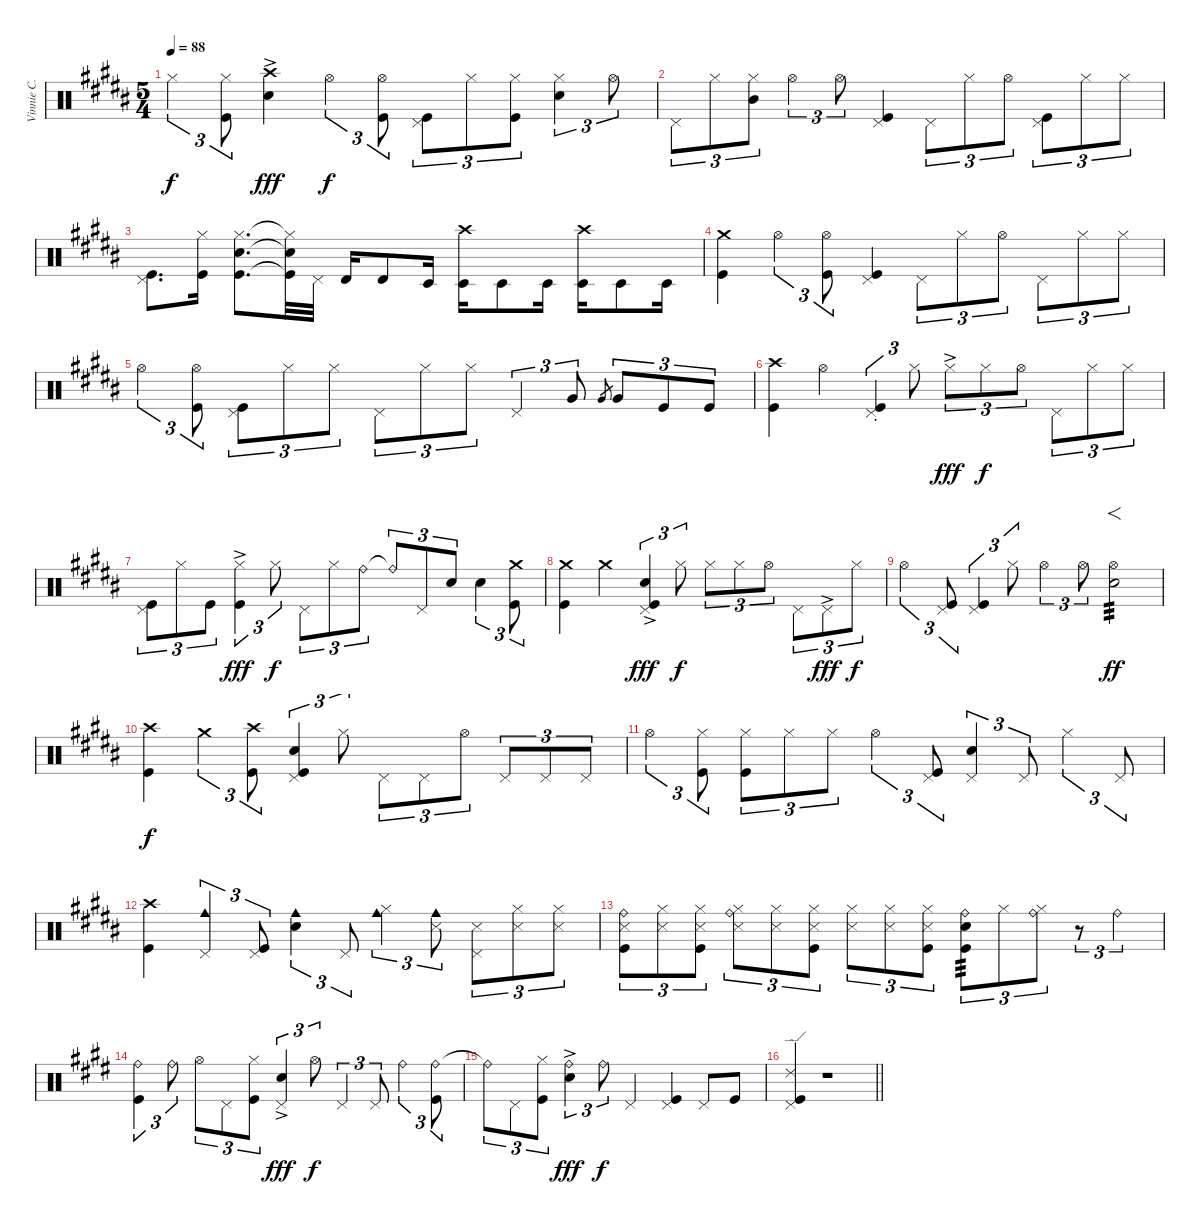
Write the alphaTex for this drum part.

\track ("Vinnie C." "Vinnie C.") {instrument percussion}
\staff {score}
\articulation defaults
\ts (5 4)
\tempo 88
\clef neutral
\ks b "Hi-Hat (closed)".4{tu (3 2) dy f}
("Hi-Hat (closed)" "Kick (hit)").8{tu (3 2)} ("Crash high (hit)"{ac} "Electric Snare (hit)").4{dy fff} "Hi-Hat (open)".4{tu (3 2) dy f} ("Hi-Hat (open)" "Kick (hit)").8{tu (3 2)} ("Pedal Hi-Hat (hit)" "Kick (hit)").8{tu (3 2)} "Hi-Hat (closed)".8{tu (3 2)} ("Hi-Hat (closed)" "Kick (hit)").8{tu (3 2)} ("Hi-Hat (closed)" "Electric Snare (hit)").4{tu (3 2)} "Hi-Hat (open)".8{tu (3 2)} |
"Pedal Hi-Hat (hit)".8{tu (3 2)} "Hi-Hat (closed)".8{tu (3 2)} ("Hi-Hat (closed)" "Mid Tom (hit)").8{tu (3 2)} "Hi-Hat (open)".4{tu (3 2)} "Hi-Hat (open)".8{tu (3 2)} ("Pedal Hi-Hat (hit)" "Kick (hit)").4 "Pedal Hi-Hat (hit)".8{tu (3 2)} "Hi-Hat (closed)".8{tu (3 2)} "Hi-Hat (open)".8{tu (3 2)} ("Pedal Hi-Hat (hit)" "Kick (hit)").8{tu (3 2)} "Hi-Hat (closed)".8{tu (3 2)} "Hi-Hat (closed)".8{tu (3 2)} |
("Pedal Hi-Hat (hit)" "Kick (hit)").8{d} ("Hi-Hat (closed)" "Kick (hit)").16 ("Hi-Hat (closed)" "Electric Snare (hit)" "Kick (hit)").8{d} ("Hi-Hat (closed)"{t} "Electric Snare (hit)"{t} "Kick (hit)"{t}).32 "Pedal Hi-Hat (hit)".32 "Timbale high (hit)".16 "Timbale high (hit)".8 "Timbale low (hit)".16 ("Crash high (hit)" "Timbale low (hit)").16 "Timbale low (hit)".8 "Timbale low (hit)".16 ("Crash high (hit)" "Timbale low (hit)").16 "Timbale low (hit)".8 "Timbale low (hit)".16 |
("Crash medium (hit)" "Kick (hit)").4 "Hi-Hat (open)".4{tu (3 2)} ("Hi-Hat (open)" "Kick (hit)").8{tu (3 2)} ("Pedal Hi-Hat (hit)" "Kick (hit)").4 "Pedal Hi-Hat (hit)".8{tu (3 2)} "Hi-Hat (closed)".8{tu (3 2)} "Hi-Hat (open)".8{tu (3 2)} "Pedal Hi-Hat (hit)".8{tu (3 2)} "Hi-Hat (closed)".8{tu (3 2)} "Hi-Hat (closed)".8{tu (3 2)} |
"Hi-Hat (open)".4{tu (3 2)} ("Hi-Hat (open)" "Kick (hit)").8{tu (3 2)} ("Pedal Hi-Hat (hit)" "Kick (hit)").8{tu (3 2)} "Hi-Hat (closed)".8{tu (3 2)} "Hi-Hat (closed)".8{tu (3 2)} "Pedal Hi-Hat (hit)".8{tu (3 2)} "Hi-Hat (closed)".8{tu (3 2)} "Hi-Hat (closed)".8{tu (3 2)} "Pedal Hi-Hat (hit)".4{tu (3 2)} "Very Low Tom (hit)".8{tu (3 2)} "Very Low Tom (hit)".8{gr} "Very Low Tom (hit)".8{tu (3 2)} "Kick (hit)".8{tu (3 2)} "Kick (hit)".8{tu (3 2)} |
("Crash high (hit)" "Kick (hit)").4 "Hi-Hat (open)".4 ("Pedal Hi-Hat (hit)"{st} "Kick (hit)").4{tu (3 2)} "Hi-Hat (closed)".8{tu (3 2)} "Hi-Hat (closed)"{ac}.8{tu (3 2) dy fff} "Hi-Hat (closed)".8{tu (3 2) dy f} "Hi-Hat (open)".8{tu (3 2)} "Pedal Hi-Hat (hit)".8{tu (3 2)} "Hi-Hat (closed)".8{tu (3 2)} "Hi-Hat (closed)".8{tu (3 2)} |
("Pedal Hi-Hat (hit)" "Kick (hit)").8{tu (3 2)} "Hi-Hat (closed)".8{tu (3 2)} "Kick (hit)".8{tu (3 2)} ("Hi-Hat (closed)"{ac} "Kick (hit)").4{tu (3 2) dy fff} "Hi-Hat (closed)".8{tu (3 2) dy f} "Pedal Hi-Hat (hit)".8{tu (3 2)} "Hi-Hat (closed)".8{tu (3 2)} "Ride (bell)".8{tu (3 2)} "Ride (bell)"{t}.8{tu (3 2)} "Pedal Hi-Hat (hit)".8{tu (3 2)} "Electric Snare (hit)".8{tu (3 2)} "Electric Snare (hit)".4{tu (3 2)} ("Crash medium (hit)" "Kick (hit)").8{tu (3 2)} |
("Crash medium (hit)" "Kick (hit)").4 "Crash medium (hit)".4 ("Pedal Hi-Hat (hit)"{ac} "Electric Snare (hit)" "Kick (hit)").4{tu (3 2) dy fff} "Hi-Hat (closed)".8{tu (3 2) dy f} "Hi-Hat (closed)".8{tu (3 2)} "Hi-Hat (closed)".8{tu (3 2)} "Hi-Hat (open)".8{tu (3 2)} "Pedal Hi-Hat (hit)".8{tu (3 2)} "Pedal Hi-Hat (hit)"{ac}.8{tu (3 2) dy fff} "Hi-Hat (closed)".8{tu (3 2) dy f} |
"Hi-Hat (open)".4{tu (3 2)} ("Pedal Hi-Hat (hit)" "Kick (hit)").8{tu (3 2)} ("Pedal Hi-Hat (hit)" "Kick (hit)").4{tu (3 2)} "Hi-Hat (closed)".8{tu (3 2)} "Hi-Hat (open)".4{tu (3 2)} "Hi-Hat (open)".8{tu (3 2)} ("Hi-Hat (open)" "Electric Snare (hit)").2{f tp 3 dy ff} |
("Crash high (hit)" "Kick (hit)").4{dy f} "Crash medium (hit)".4{tu (3 2)} ("Crash high (hit)" "Kick (hit)").8{tu (3 2)} ("Pedal Hi-Hat (hit)" "Electric Snare (hit)" "Kick (hit)").4{tu (3 2)} "Hi-Hat (closed)".8{tu (3 2)} "Pedal Hi-Hat (hit)".8{tu (3 2)} "Pedal Hi-Hat (hit)".8{tu (3 2)} "Hi-Hat (open)".8{tu (3 2)} "Pedal Hi-Hat (hit)".8{tu (3 2)} "Pedal Hi-Hat (hit)".8{tu (3 2)} "Pedal Hi-Hat (hit)".8{tu (3 2)} |
"Hi-Hat (open)".4{tu (3 2)} ("Hi-Hat (closed)" "Kick (hit)").8{tu (3 2)} ("Hi-Hat (closed)" "Kick (hit)").8{tu (3 2)} "Hi-Hat (closed)".8{tu (3 2)} "Hi-Hat (closed)".8{tu (3 2)} "Hi-Hat (open)".4{tu (3 2)} ("Pedal Hi-Hat (hit)" "Kick (hit)").8{tu (3 2)} ("Pedal Hi-Hat (hit)" "Electric Snare (hit)").4{tu (3 2)} "Pedal Hi-Hat (hit)".8{tu (3 2)} "Hi-Hat (closed)".4{tu (3 2)} "Pedal Hi-Hat (hit)".8{tu (3 2)} |
("Crash high (hit)" "Kick (hit)").4 ("Pedal Hi-Hat (hit)" "Cowbell medium (hit)").4{tu (3 2)} ("Pedal Hi-Hat (hit)" "Kick (hit)").8{tu (3 2)} ("Cowbell medium (hit)" "Electric Snare (hit)").4{tu (3 2)} "Pedal Hi-Hat (hit)".8{tu (3 2)} ("Hi-Hat (closed)" "Cowbell medium (hit)").4{tu (3 2)} ("Cowbell medium (hit)" "Snare (side stick) 3").8{tu (3 2)} ("Pedal Hi-Hat (hit)" "Snare (side stick) 3").8{tu (3 2)} ("Hi-Hat (closed)" "Snare (side stick) 3").8{tu (3 2)} ("Hi-Hat (closed)" "Snare (side stick) 3").8{tu (3 2)} |
("Ride (bell)" "Snare (side stick) 3" "Kick (hit)").8{tu (3 2)} ("Hi-Hat (closed)" "Snare (side stick) 3").8{tu (3 2)} ("Hi-Hat (closed)" "Snare (side stick) 3" "Kick (hit)").8{tu (3 2)} ("Ride (bell)" "Hi-Hat (closed)" "Snare (side stick) 3").8{tu (3 2)} ("Hi-Hat (closed)" "Snare (side stick) 3").8{tu (3 2)} ("Hi-Hat (closed)" "Snare (side stick) 3" "Kick (hit)").8{tu (3 2)} ("Hi-Hat (closed)" "Snare (side stick) 3").8{tu (3 2)} ("Hi-Hat (closed)" "Snare (side stick) 3").8{tu (3 2)} ("Hi-Hat (closed)" "Snare (side stick) 3" "Kick (hit)").8{tu (3 2)} ("Ride (bell)" "Electric Snare (hit)" "Kick (hit)").8{tu (3 2) tp 3} "Hi-Hat (closed)".8{tu (3 2)} ("Ride (bell)" "Hi-Hat (closed)").8{tu (3 2)} r.8{tu (3 2)} "Ride (bell)".4{tu (3 2)} |
\ks e
("Ride (bell)" "Kick (hit)").4{tu (3 2)} "Ride (bell)".8{tu (3 2)} "Hi-Hat (open)".8{tu (3 2)} "Pedal Hi-Hat (hit)".8{tu (3 2)} ("Hi-Hat (closed)" "Kick (hit)").8{tu (3 2)} ("Pedal Hi-Hat (hit)"{ac} "Electric Snare (hit)").4{tu (3 2) dy fff} "Hi-Hat (open)".8{tu (3 2) dy f} "Pedal Hi-Hat (hit)".4{tu (3 2)} "Pedal Hi-Hat (hit)".8{tu (3 2)} "Ride (bell)".4{tu (3 2)} ("Ride (bell)" "Kick (hit)").8{tu (3 2)} |
"Ride (bell)"{t}.8{tu (3 2)} "Pedal Hi-Hat (hit)".8{tu (3 2)} ("Hi-Hat (closed)" "Kick (hit)").8{tu (3 2)} ("Ride (bell)"{ac} "Electric Snare (hit)").4{tu (3 2) dy fff} "Ride (bell)".8{tu (3 2) dy f} "Pedal Hi-Hat (hit)".4 ("Pedal Hi-Hat (hit)" "Kick (hit)").4 "Pedal Hi-Hat (hit)".8 "Kick (hit)".8 |
\barLineRight lightlight
("Ride (edge) 2" "Pedal Hi-Hat (hit)" "Kick (hit)").4 r.1
